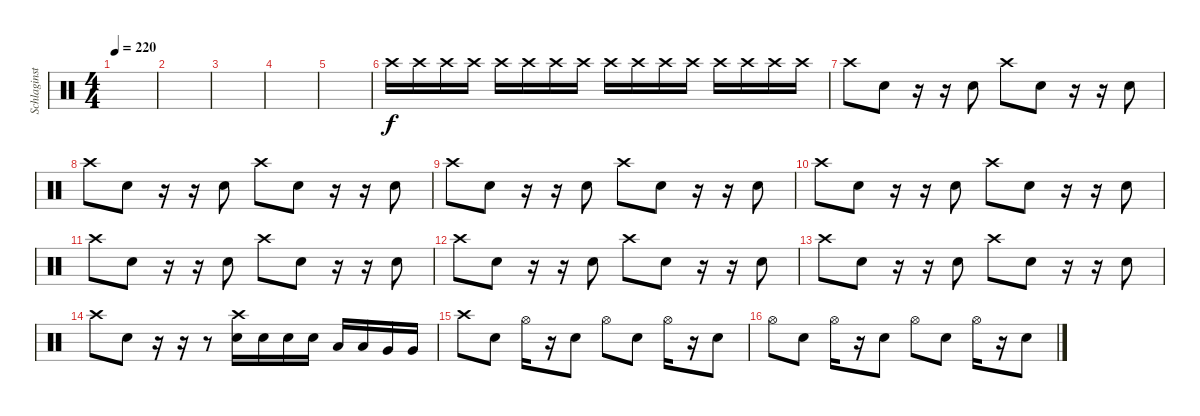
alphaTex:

\track ("Schlaginstrumente - Auswahl" "Schlaginst") {instrument percussion}
\staff {score}
\articulation defaults
\ts (4 4)
\tempo 220
\clef neutral
\ks c
|
|
|
|
|
"Crash high (hit)".16{volume 15} "Crash high (hit)".16 "Crash high (hit)".16 "Crash high (hit)".16 "Crash high (hit)".16 "Crash high (hit)".16 "Crash high (hit)".16 "Crash high (hit)".16 "Crash high (hit)".16 "Crash high (hit)".16 "Crash high (hit)".16 "Crash high (hit)".16 "Crash high (hit)".16 "Crash high (hit)".16 "Crash high (hit)".16 "Crash high (hit)".16 |
"Crash high (hit)".8 "Electric Snare (hit)".8 r.16 r.16 "Electric Snare (hit)".8 "Crash high (hit)".8 "Electric Snare (hit)".8 r.16 r.16 "Electric Snare (hit)".8 |
"Crash high (hit)".8 "Electric Snare (hit)".8 r.16 r.16 "Electric Snare (hit)".8 "Crash high (hit)".8 "Electric Snare (hit)".8 r.16 r.16 "Electric Snare (hit)".8 |
"Crash high (hit)".8 "Electric Snare (hit)".8 r.16 r.16 "Electric Snare (hit)".8 "Crash high (hit)".8 "Electric Snare (hit)".8 r.16 r.16 "Electric Snare (hit)".8 |
"Crash high (hit)".8 "Electric Snare (hit)".8 r.16 r.16 "Electric Snare (hit)".8 "Crash high (hit)".8 "Electric Snare (hit)".8 r.16 r.16 "Electric Snare (hit)".8 |
"Crash high (hit)".8 "Electric Snare (hit)".8 r.16 r.16 "Electric Snare (hit)".8 "Crash high (hit)".8 "Electric Snare (hit)".8 r.16 r.16 "Electric Snare (hit)".8 |
"Crash high (hit)".8 "Electric Snare (hit)".8 r.16 r.16 "Electric Snare (hit)".8 "Crash high (hit)".8 "Electric Snare (hit)".8 r.16 r.16 "Electric Snare (hit)".8 |
"Crash high (hit)".8 "Electric Snare (hit)".8 r.16 r.16 "Electric Snare (hit)".8 "Crash high (hit)".8 "Electric Snare (hit)".8 r.16 r.16 "Electric Snare (hit)".8 |
"Crash high (hit)".8 "Electric Snare (hit)".8 r.16 r.16 r.8 ("Crash high (hit)" "Electric Snare (hit)").16 "Electric Snare (hit)".16 "Electric Snare (hit)".16 "Electric Snare (hit)".16 "Low Tom (hit)".16 "Low Tom (hit)".16 "Very Low Tom (hit)".16 "Very Low Tom (hit)".16 |
"Crash high (hit)".8 "Electric Snare (hit)".8 "Hi-Hat (open)".16 r.16 "Electric Snare (hit)".8 "Hi-Hat (open)".8 "Electric Snare (hit)".8 "Hi-Hat (open)".16 r.16 "Electric Snare (hit)".8 |
"Hi-Hat (open)".8 "Electric Snare (hit)".8 "Hi-Hat (open)".16 r.16 "Electric Snare (hit)".8 "Hi-Hat (open)".8 "Electric Snare (hit)".8 "Hi-Hat (open)".16 r.16 "Electric Snare (hit)".8
